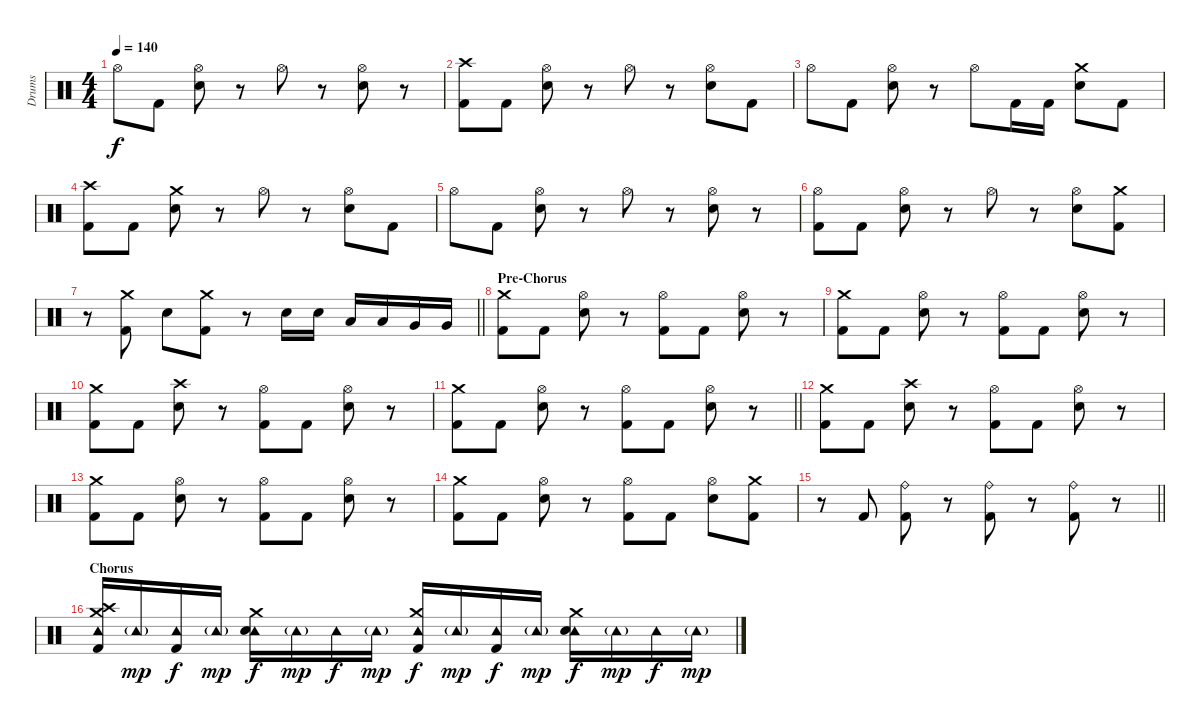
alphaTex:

\track ("Drums" "Drums") {instrument percussion}
\staff {score}
\articulation defaults
\ts (4 4)
\tempo 140
\clef neutral
\ks c "Hi-Hat (open)".8{dy f} "Kick (hit) 2".8
("Hi-Hat (open)" "Electric Snare (hit)").8 r.8 "Hi-Hat (open)".8 r.8 ("Hi-Hat (open)" "Electric Snare (hit)").8 r.8 |
("Crash high (hit)" "Kick (hit) 2").8 "Kick (hit) 2".8 ("Hi-Hat (open)" "Electric Snare (hit)").8 r.8 "Hi-Hat (open)".8 r.8 ("Hi-Hat (open)" "Electric Snare (hit)").8 "Kick (hit) 2".8 |
"Hi-Hat (open)".8 "Kick (hit) 2".8 ("Hi-Hat (open)" "Electric Snare (hit)").8 r.8 "Hi-Hat (open)".8 "Kick (hit) 2".16 "Kick (hit) 2".16 ("Crash medium (hit)" "Electric Snare (hit)").8 "Kick (hit) 2".8 |
("Crash high (hit)" "Kick (hit) 2").8 "Kick (hit) 2".8 ("Crash medium (hit)" "Electric Snare (hit)").8 r.8 "Hi-Hat (open)".8 r.8 ("Hi-Hat (open)" "Electric Snare (hit)").8 "Kick (hit) 2".8 |
"Hi-Hat (open)".8 "Kick (hit) 2".8 ("Hi-Hat (open)" "Electric Snare (hit)").8 r.8 "Hi-Hat (open)".8 r.8 ("Hi-Hat (open)" "Electric Snare (hit)").8 r.8 |
("Hi-Hat (open)" "Kick (hit) 2").8 "Kick (hit) 2".8 ("Hi-Hat (open)" "Electric Snare (hit)").8 r.8 "Hi-Hat (open)".8 r.8 ("Hi-Hat (open)" "Electric Snare (hit)").8 ("Crash medium (hit)" "Kick (hit) 2").8 |
\barLineRight lightlight
r.8 ("Crash medium (hit)" "Kick (hit) 2").8 "Electric Snare (hit)".8 ("Crash medium (hit)" "Kick (hit) 2").8 r.8 "Electric Snare (hit)".16 "Electric Snare (hit)".16 "Low Tom (hit)".16 "Low Tom (hit)".16 "Very Low Tom (hit)".16 "Very Low Tom (hit)".16 |
\section ("" "Pre-Chorus")
("Crash medium (hit)" "Kick (hit) 2").8 "Kick (hit) 2".8 ("Hi-Hat (open)" "Electric Snare (hit)").8 r.8 ("Hi-Hat (open)" "Kick (hit) 2").8 "Kick (hit) 2".8 ("Hi-Hat (open)" "Electric Snare (hit)").8 r.8 |
("Crash medium (hit)" "Kick (hit) 2").8 "Kick (hit) 2".8 ("Hi-Hat (open)" "Electric Snare (hit)").8 r.8 ("Hi-Hat (open)" "Kick (hit) 2").8 "Kick (hit) 2".8 ("Hi-Hat (open)" "Electric Snare (hit)").8 r.8 |
("Crash medium (hit)" "Kick (hit) 2").8 "Kick (hit) 2".8 ("Crash high (hit)" "Electric Snare (hit)").8 r.8 ("Hi-Hat (open)" "Kick (hit) 2").8 "Kick (hit) 2".8 ("Hi-Hat (open)" "Electric Snare (hit)").8 r.8 |
\barLineRight lightlight
("Crash medium (hit)" "Kick (hit) 2").8 "Kick (hit) 2".8 ("Hi-Hat (open)" "Electric Snare (hit)").8 r.8 ("Hi-Hat (open)" "Kick (hit) 2").8 "Kick (hit) 2".8 ("Hi-Hat (open)" "Electric Snare (hit)").8 r.8 |
("Crash medium (hit)" "Kick (hit) 2").8 "Kick (hit) 2".8 ("Crash high (hit)" "Electric Snare (hit)").8 r.8 ("Hi-Hat (open)" "Kick (hit) 2").8 "Kick (hit) 2".8 ("Hi-Hat (open)" "Electric Snare (hit)").8 r.8 |
("Crash medium (hit)" "Kick (hit) 2").8 "Kick (hit) 2".8 ("Hi-Hat (open)" "Electric Snare (hit)").8 r.8 ("Hi-Hat (open)" "Kick (hit) 2").8 "Kick (hit) 2".8 ("Hi-Hat (open)" "Electric Snare (hit)").8 r.8 |
("Crash medium (hit)" "Kick (hit) 2").8 "Kick (hit) 2".8 ("Hi-Hat (open)" "Electric Snare (hit)").8 r.8 ("Hi-Hat (open)" "Kick (hit) 2").8 "Kick (hit) 2".8 ("Hi-Hat (open)" "Electric Snare (hit)").8 ("Crash medium (hit)" "Kick (hit) 2").8 |
\barLineRight lightlight
r.8 "Kick (hit) 2".8 ("Ride (bell)" "Kick (hit) 2").8 r.8 ("Ride (bell)" "Kick (hit) 2").8 r.8 ("Ride (bell)" "Kick (hit) 2").8 r.8 |
\section ("" "Chorus")
("Tambourine (hit)" "Crash high (hit)" "Crash medium (hit)" "Kick (hit) 2").16 "Tambourine (hit)"{g}.16{dy mp} ("Tambourine (hit)" "Kick (hit) 2").16{dy f} "Tambourine (hit)"{g}.16{dy mp} ("Tambourine (hit)" "Crash medium (hit)" "Electric Snare (hit)").16{dy f} "Tambourine (hit)"{g}.16{dy mp} "Tambourine (hit)".16{dy f} "Tambourine (hit)"{g}.16{dy mp} ("Tambourine (hit)" "Crash medium (hit)" "Kick (hit) 2").16{dy f} "Tambourine (hit)"{g}.16{dy mp} ("Tambourine (hit)" "Kick (hit) 2").16{dy f} "Tambourine (hit)"{g}.16{dy mp} ("Tambourine (hit)" "Crash medium (hit)" "Electric Snare (hit)").16{dy f} "Tambourine (hit)"{g}.16{dy mp} "Tambourine (hit)".16{dy f} "Tambourine (hit)"{g}.16{dy mp}
